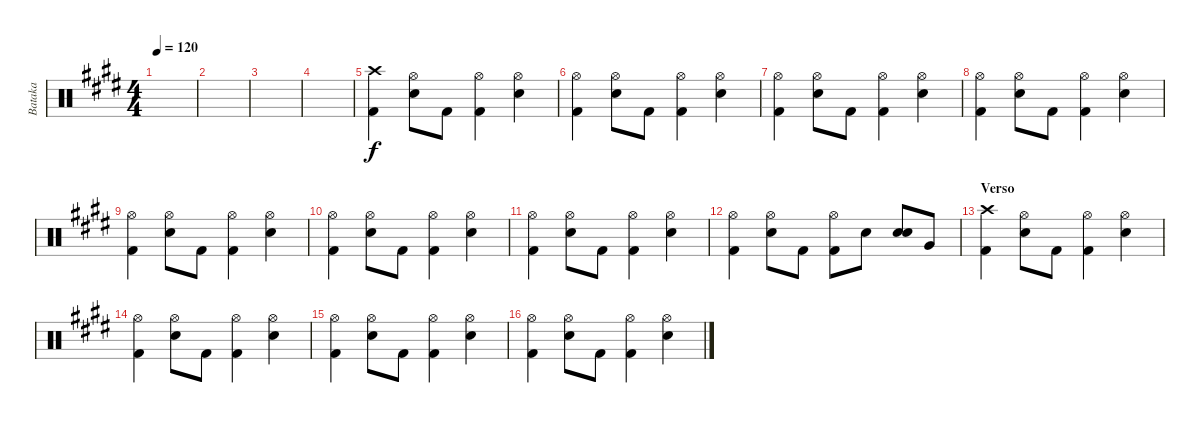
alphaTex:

\track ("Bataka" "Bataka") {instrument percussion}
\staff {score}
\articulation defaults
\ts (4 4)
\tempo 120
\clef neutral
\ks e
|
|
|
|
("Crash high (hit)" "Kick (hit) 2").4 ("Hi-Hat (open)" "Electric Snare (hit)").8 "Kick (hit) 2".8 ("Hi-Hat (open)" "Kick (hit) 2").4 ("Hi-Hat (open)" "Electric Snare (hit)").4 |
("Hi-Hat (open)" "Kick (hit) 2").4 ("Hi-Hat (open)" "Electric Snare (hit)").8 "Kick (hit) 2".8 ("Hi-Hat (open)" "Kick (hit) 2").4 ("Hi-Hat (open)" "Electric Snare (hit)").4 |
("Hi-Hat (open)" "Kick (hit) 2").4 ("Hi-Hat (open)" "Electric Snare (hit)").8 "Kick (hit) 2".8 ("Hi-Hat (open)" "Kick (hit) 2").4 ("Hi-Hat (open)" "Electric Snare (hit)").4 |
("Hi-Hat (open)" "Kick (hit) 2").4 ("Hi-Hat (open)" "Electric Snare (hit)").8 "Kick (hit) 2".8 ("Hi-Hat (open)" "Kick (hit) 2").4 ("Hi-Hat (open)" "Electric Snare (hit)").4 |
("Hi-Hat (open)" "Kick (hit) 2").4 ("Hi-Hat (open)" "Electric Snare (hit)").8 "Kick (hit) 2".8 ("Hi-Hat (open)" "Kick (hit) 2").4 ("Hi-Hat (open)" "Electric Snare (hit)").4 |
("Hi-Hat (open)" "Kick (hit) 2").4 ("Hi-Hat (open)" "Electric Snare (hit)").8 "Kick (hit) 2".8 ("Hi-Hat (open)" "Kick (hit) 2").4 ("Hi-Hat (open)" "Electric Snare (hit)").4 |
("Hi-Hat (open)" "Kick (hit) 2").4 ("Hi-Hat (open)" "Electric Snare (hit)").8 "Kick (hit) 2".8 ("Hi-Hat (open)" "Kick (hit) 2").4 ("Hi-Hat (open)" "Electric Snare (hit)").4 |
("Hi-Hat (open)" "Kick (hit) 2").4 ("Hi-Hat (open)" "Electric Snare (hit)").8 "Kick (hit) 2".8 ("Hi-Hat (open)" "Kick (hit) 2").8 "Electric Snare (hit)".8 ("Electric Snare (hit)" "Electric Snare (hit)").8 "Very Low Tom (hit)".8 |
\section ("" "Verso")
("Crash high (hit)" "Kick (hit) 2").4 ("Hi-Hat (open)" "Electric Snare (hit)").8 "Kick (hit) 2".8 ("Hi-Hat (open)" "Kick (hit) 2").4 ("Hi-Hat (open)" "Electric Snare (hit)").4 |
("Hi-Hat (open)" "Kick (hit) 2").4 ("Hi-Hat (open)" "Electric Snare (hit)").8 "Kick (hit) 2".8 ("Hi-Hat (open)" "Kick (hit) 2").4 ("Hi-Hat (open)" "Electric Snare (hit)").4 |
("Hi-Hat (open)" "Kick (hit) 2").4 ("Hi-Hat (open)" "Electric Snare (hit)").8 "Kick (hit) 2".8 ("Hi-Hat (open)" "Kick (hit) 2").4 ("Hi-Hat (open)" "Electric Snare (hit)").4 |
("Hi-Hat (open)" "Kick (hit) 2").4 ("Hi-Hat (open)" "Electric Snare (hit)").8 "Kick (hit) 2".8 ("Hi-Hat (open)" "Kick (hit) 2").4 ("Hi-Hat (open)" "Electric Snare (hit)").4
